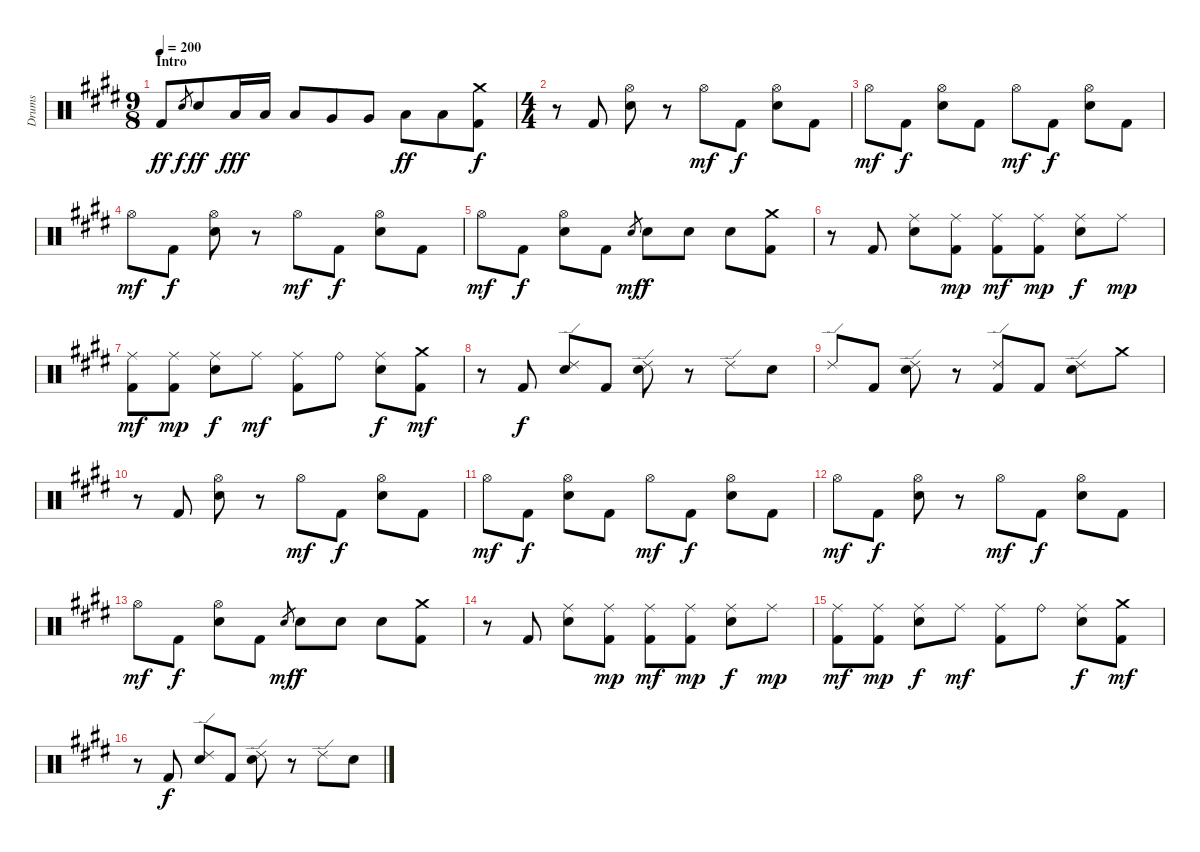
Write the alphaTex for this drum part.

\track ("Drums" "Drums") {instrument percussion}
\staff {score}
\articulation defaults
\ts (9 8)
\section ("" "Intro")
\tempo 200
\clef neutral
\ks c#minor "Kick (hit) 2".8{dy ff} "Electric Snare (hit)".8{gr dy f} "Electric Snare (hit)".8{dy ff} "Low Tom (hit)".16{dy fff} "Low Tom (hit)".16 "Low Tom (hit)".8 "Very Low Tom (hit)".8 "Very Low Tom (hit)".8 "Low Floor Tom (hit)".8{dy ff} "Low Floor Tom (hit)".8
("Crash medium (hit)" "Kick (hit) 2").8{dy f} |
\ts (4 4)
r.8 "Kick (hit) 2".8 ("Hi-Hat (open)" "Electric Snare (hit)").8 r.8 "Hi-Hat (open)".8{dy mf} "Kick (hit) 2".8{dy f} ("Hi-Hat (open)" "Electric Snare (hit)").8 "Kick (hit) 2".8 |
"Hi-Hat (open)".8{dy mf} "Kick (hit) 2".8{dy f} ("Hi-Hat (open)" "Electric Snare (hit)").8 "Kick (hit) 2".8 "Hi-Hat (open)".8{dy mf} "Kick (hit) 2".8{dy f} ("Hi-Hat (open)" "Electric Snare (hit)").8 "Kick (hit) 2".8 |
"Hi-Hat (open)".8{dy mf} "Kick (hit) 2".8{dy f} ("Hi-Hat (open)" "Electric Snare (hit)").8 r.8 "Hi-Hat (open)".8{dy mf} "Kick (hit) 2".8{dy f} ("Hi-Hat (open)" "Electric Snare (hit)").8 "Kick (hit) 2".8 |
"Hi-Hat (open)".8{dy mf} "Kick (hit) 2".8{dy f} ("Hi-Hat (open)" "Electric Snare (hit)").8 "Kick (hit) 2".8 "Electric Snare (hit)".8{gr dy mf} "Electric Snare (hit)".8{dy f} "Electric Snare (hit)".8 "Electric Snare (hit)".8 ("Crash medium (hit)" "Kick (hit) 2").8 |
r.8 "Kick (hit) 2".8 ("Ride (middle)" "Electric Snare (hit)").8 ("Ride (middle)" "Kick (hit) 2").8{dy mp} ("Ride (middle)" "Kick (hit) 2").8{dy mf} ("Ride (middle)" "Kick (hit) 2").8{dy mp} ("Ride (middle)" "Electric Snare (hit)").8{dy f} "Ride (middle)".8{dy mp} |
("Ride (middle)" "Kick (hit) 2").8{dy mf} ("Ride (middle)" "Kick (hit) 2").8{dy mp} ("Ride (middle)" "Electric Snare (hit)").8{dy f} "Ride (middle)".8{dy mf} ("Ride (middle)" "Kick (hit) 2").8 "Ride (bell)".8 ("Ride (middle)" "Electric Snare (hit)").8{dy f} ("Crash medium (hit)" "Kick (hit) 2").8{dy mf} |
r.8 "Kick (hit) 2".8{dy f} ("Ride (edge) 2" "Electric Snare (hit)").8 "Kick (hit) 2".8 ("Ride (edge) 2" "Electric Snare (hit)").8 r.8 "Ride (edge) 2".8 "Electric Snare (hit)".8 |
"Ride (edge) 2".8 "Kick (hit) 2".8 ("Ride (edge) 2" "Electric Snare (hit)").8 r.8 ("Ride (edge) 2" "Kick (hit) 2").8 "Kick (hit) 2".8 ("Ride (edge) 2" "Electric Snare (hit)").8 "Crash medium (hit)".8 |
r.8 "Kick (hit) 2".8 ("Hi-Hat (open)" "Electric Snare (hit)").8 r.8 "Hi-Hat (open)".8{dy mf} "Kick (hit) 2".8{dy f} ("Hi-Hat (open)" "Electric Snare (hit)").8 "Kick (hit) 2".8 |
"Hi-Hat (open)".8{dy mf} "Kick (hit) 2".8{dy f} ("Hi-Hat (open)" "Electric Snare (hit)").8 "Kick (hit) 2".8 "Hi-Hat (open)".8{dy mf} "Kick (hit) 2".8{dy f} ("Hi-Hat (open)" "Electric Snare (hit)").8 "Kick (hit) 2".8 |
"Hi-Hat (open)".8{dy mf} "Kick (hit) 2".8{dy f} ("Hi-Hat (open)" "Electric Snare (hit)").8 r.8 "Hi-Hat (open)".8{dy mf} "Kick (hit) 2".8{dy f} ("Hi-Hat (open)" "Electric Snare (hit)").8 "Kick (hit) 2".8 |
"Hi-Hat (open)".8{dy mf} "Kick (hit) 2".8{dy f} ("Hi-Hat (open)" "Electric Snare (hit)").8 "Kick (hit) 2".8 "Electric Snare (hit)".8{gr dy mf} "Electric Snare (hit)".8{dy f} "Electric Snare (hit)".8 "Electric Snare (hit)".8 ("Crash medium (hit)" "Kick (hit) 2").8 |
r.8 "Kick (hit) 2".8 ("Ride (middle)" "Electric Snare (hit)").8 ("Ride (middle)" "Kick (hit) 2").8{dy mp} ("Ride (middle)" "Kick (hit) 2").8{dy mf} ("Ride (middle)" "Kick (hit) 2").8{dy mp} ("Ride (middle)" "Electric Snare (hit)").8{dy f} "Ride (middle)".8{dy mp} |
("Ride (middle)" "Kick (hit) 2").8{dy mf} ("Ride (middle)" "Kick (hit) 2").8{dy mp} ("Ride (middle)" "Electric Snare (hit)").8{dy f} "Ride (middle)".8{dy mf} ("Ride (middle)" "Kick (hit) 2").8 "Ride (bell)".8 ("Ride (middle)" "Electric Snare (hit)").8{dy f} ("Crash medium (hit)" "Kick (hit) 2").8{dy mf} |
r.8 "Kick (hit) 2".8{dy f} ("Ride (edge) 2" "Electric Snare (hit)").8 "Kick (hit) 2".8 ("Ride (edge) 2" "Electric Snare (hit)").8 r.8 "Ride (edge) 2".8 "Electric Snare (hit)".8
